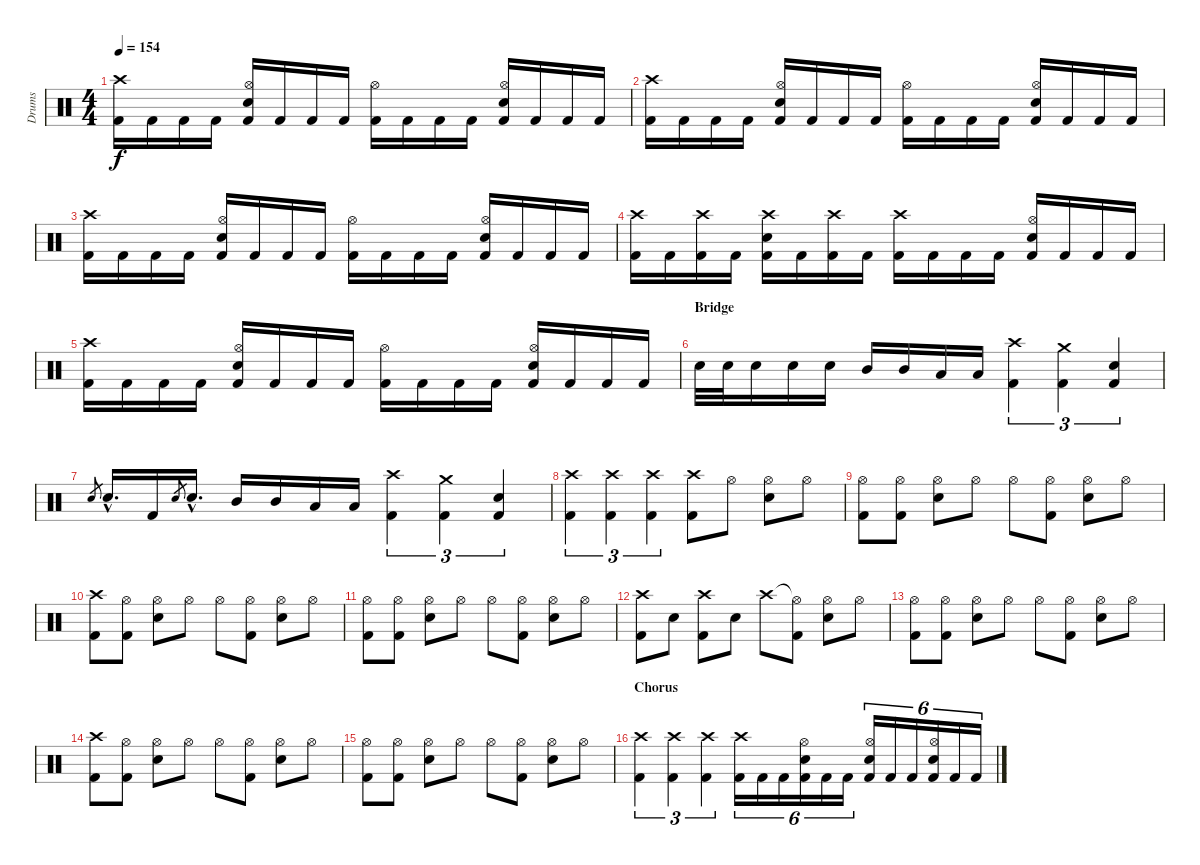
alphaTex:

\track ("Drums" "Drums") {instrument percussion}
\staff {score}
\articulation defaults
\ts (4 4)
\tempo 154
\clef neutral
\ks c
("Crash high (hit)" "Kick (hit) 2").16{dy f} "Kick (hit) 2".16 "Kick (hit) 2".16 "Kick (hit) 2".16 ("Hi-Hat (open)" "Electric Snare (hit)" "Kick (hit) 2").16 "Kick (hit) 2".16 "Kick (hit) 2".16 "Kick (hit) 2".16 ("Hi-Hat (open)" "Kick (hit) 2").16 "Kick (hit) 2".16 "Kick (hit) 2".16 "Kick (hit) 2".16 ("Hi-Hat (open)" "Electric Snare (hit)" "Kick (hit) 2").16 "Kick (hit) 2".16 "Kick (hit) 2".16 "Kick (hit) 2".16 |
("Crash high (hit)" "Kick (hit) 2").16 "Kick (hit) 2".16 "Kick (hit) 2".16 "Kick (hit) 2".16 ("Hi-Hat (open)" "Electric Snare (hit)" "Kick (hit) 2").16 "Kick (hit) 2".16 "Kick (hit) 2".16 "Kick (hit) 2".16 ("Hi-Hat (open)" "Kick (hit) 2").16 "Kick (hit) 2".16 "Kick (hit) 2".16 "Kick (hit) 2".16 ("Hi-Hat (open)" "Electric Snare (hit)" "Kick (hit) 2").16 "Kick (hit) 2".16 "Kick (hit) 2".16 "Kick (hit) 2".16 |
("Crash high (hit)" "Kick (hit) 2").16 "Kick (hit) 2".16 "Kick (hit) 2".16 "Kick (hit) 2".16 ("Hi-Hat (open)" "Electric Snare (hit)" "Kick (hit) 2").16 "Kick (hit) 2".16 "Kick (hit) 2".16 "Kick (hit) 2".16 ("Hi-Hat (open)" "Kick (hit) 2").16 "Kick (hit) 2".16 "Kick (hit) 2".16 "Kick (hit) 2".16 ("Hi-Hat (open)" "Electric Snare (hit)" "Kick (hit) 2").16 "Kick (hit) 2".16 "Kick (hit) 2".16 "Kick (hit) 2".16 |
("Crash high (hit)" "Kick (hit) 2").16 "Kick (hit) 2".16 ("Crash high (hit)" "Kick (hit) 2").16 "Kick (hit) 2".16 ("Crash high (hit)" "Electric Snare (hit)" "Kick (hit) 2").16 "Kick (hit) 2".16 ("Crash high (hit)" "Kick (hit) 2").16 "Kick (hit) 2".16 ("Crash high (hit)" "Kick (hit) 2").16 "Kick (hit) 2".16 "Kick (hit) 2".16 "Kick (hit) 2".16 ("Hi-Hat (open)" "Electric Snare (hit)" "Kick (hit) 2").16 "Kick (hit) 2".16 "Kick (hit) 2".16 "Kick (hit) 2".16 |
("Crash high (hit)" "Kick (hit) 2").16 "Kick (hit) 2".16 "Kick (hit) 2".16 "Kick (hit) 2".16 ("Hi-Hat (open)" "Electric Snare (hit)" "Kick (hit) 2").16 "Kick (hit) 2".16 "Kick (hit) 2".16 "Kick (hit) 2".16 ("Hi-Hat (open)" "Kick (hit) 2").16 "Kick (hit) 2".16 "Kick (hit) 2".16 "Kick (hit) 2".16 ("Hi-Hat (open)" "Electric Snare (hit)" "Kick (hit) 2").16 "Kick (hit) 2".16 "Kick (hit) 2".16 "Kick (hit) 2".16 |
\section ("" "Bridge")
"Electric Snare (hit)".32 "Electric Snare (hit)".32 "Electric Snare (hit)".16 "Electric Snare (hit)".16 "Electric Snare (hit)".16 "Mid Tom (hit)".16 "Mid Tom (hit)".16 "Low Tom (hit)".16 "Low Tom (hit)".16 ("Crash high (hit)" "Kick (hit) 2").4{tu (3 2)} ("Crash medium (hit)" "Kick (hit) 2").4{tu (3 2)} ("Electric Snare (hit)" "Kick (hit) 2").4{tu (3 2)} |
"Electric Snare (hit)".8{gr} "Electric Snare (hit)"{hac}.16{d} "Kick (hit) 2".16 "Electric Snare (hit)".8{gr} "Electric Snare (hit)"{hac}.16{d} "Mid Tom (hit)".16 "Mid Tom (hit)".16 "Low Tom (hit)".16 "Low Tom (hit)".16 ("Crash high (hit)" "Kick (hit) 2").4{tu (3 2)} ("Crash medium (hit)" "Kick (hit) 2").4{tu (3 2)} ("Electric Snare (hit)" "Kick (hit) 2").4{tu (3 2)} |
("Crash high (hit)" "Kick (hit) 2").4{tu (3 2)} ("Crash high (hit)" "Kick (hit) 2").4{tu (3 2)} ("Crash high (hit)" "Kick (hit) 2").4{tu (3 2)} ("Crash high (hit)" "Kick (hit) 2").8 "Hi-Hat (open)".8 ("Hi-Hat (open)" "Electric Snare (hit)").8 "Hi-Hat (open)".8 |
("Hi-Hat (open)" "Kick (hit) 2").8 ("Hi-Hat (open)" "Kick (hit) 2").8 ("Hi-Hat (open)" "Electric Snare (hit)").8 "Hi-Hat (open)".8 "Hi-Hat (open)".8 ("Hi-Hat (open)" "Kick (hit) 2").8 ("Hi-Hat (open)" "Electric Snare (hit)").8 "Hi-Hat (open)".8 |
("Crash high (hit)" "Kick (hit) 2").8 ("Hi-Hat (open)" "Kick (hit) 2").8 ("Hi-Hat (open)" "Electric Snare (hit)").8 "Hi-Hat (open)".8 "Hi-Hat (open)".8 ("Hi-Hat (open)" "Kick (hit) 2").8 ("Hi-Hat (open)" "Electric Snare (hit)").8 "Hi-Hat (open)".8 |
("Hi-Hat (open)" "Kick (hit) 2").8 ("Hi-Hat (open)" "Kick (hit) 2").8 ("Hi-Hat (open)" "Electric Snare (hit)").8 "Hi-Hat (open)".8 "Hi-Hat (open)".8 ("Hi-Hat (open)" "Kick (hit) 2").8 ("Hi-Hat (open)" "Electric Snare (hit)").8 "Hi-Hat (open)".8 |
("Crash high (hit)" "Kick (hit) 2").8 "Electric Snare (hit)".8 ("Crash high (hit)" "Kick (hit) 2").8 "Electric Snare (hit)".8 "Crash high (hit)".8 ("Hi-Hat (open)"{t} "Kick (hit) 2").8 ("Hi-Hat (open)" "Electric Snare (hit)").8 "Hi-Hat (open)".8 |
("Hi-Hat (open)" "Kick (hit) 2").8 ("Hi-Hat (open)" "Kick (hit) 2").8 ("Hi-Hat (open)" "Electric Snare (hit)").8 "Hi-Hat (open)".8 "Hi-Hat (open)".8 ("Hi-Hat (open)" "Kick (hit) 2").8 ("Hi-Hat (open)" "Electric Snare (hit)").8 "Hi-Hat (open)".8 |
("Crash high (hit)" "Kick (hit) 2").8 ("Hi-Hat (open)" "Kick (hit) 2").8 ("Hi-Hat (open)" "Electric Snare (hit)").8 "Hi-Hat (open)".8 "Hi-Hat (open)".8 ("Hi-Hat (open)" "Kick (hit) 2").8 ("Hi-Hat (open)" "Electric Snare (hit)").8 "Hi-Hat (open)".8 |
("Hi-Hat (open)" "Kick (hit) 2").8 ("Hi-Hat (open)" "Kick (hit) 2").8 ("Hi-Hat (open)" "Electric Snare (hit)").8 "Hi-Hat (open)".8 "Hi-Hat (open)".8 ("Hi-Hat (open)" "Kick (hit) 2").8 ("Hi-Hat (open)" "Electric Snare (hit)").8 "Hi-Hat (open)".8 |
\section ("" "Chorus")
("Crash high (hit)" "Kick (hit) 2").4{tu (3 2)} ("Crash high (hit)" "Kick (hit) 2").4{tu (3 2)} ("Crash high (hit)" "Kick (hit) 2").4{tu (3 2)} ("Crash high (hit)" "Kick (hit) 2").16{tu (6 4)} "Kick (hit) 2".16{tu (6 4)} "Kick (hit) 2".16{tu (6 4)} ("Hi-Hat (open)" "Electric Snare (hit)" "Kick (hit) 2").16{tu (6 4)} "Kick (hit) 2".16{tu (6 4)} "Kick (hit) 2".16{tu (6 4)} ("Hi-Hat (open)" "Electric Snare (hit)" "Kick (hit) 2").16{tu (6 4)} "Kick (hit) 2".16{tu (6 4)} "Kick (hit) 2".16{tu (6 4)} ("Hi-Hat (open)" "Electric Snare (hit)" "Kick (hit) 2").16{tu (6 4)} "Kick (hit) 2".16{tu (6 4)} "Kick (hit) 2".16{tu (6 4)}
